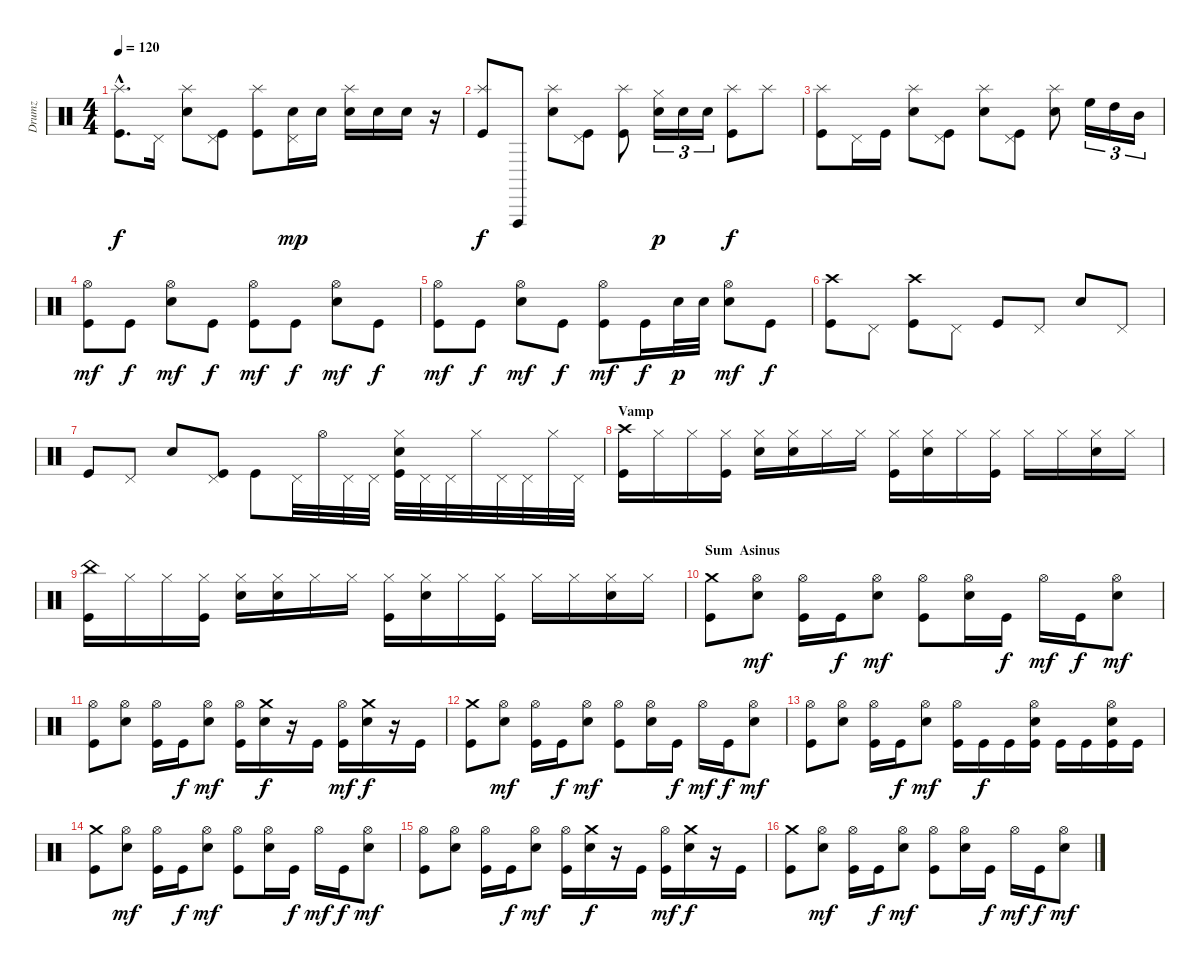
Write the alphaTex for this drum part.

\track ("Drumz" "Drumz") {instrument percussion}
\staff {score}
\articulation defaults
\ts (4 4)
\tempo 120
\clef neutral
\ks c
("Splash (hit)"{hac} "Kick (hit)"{hac}).8{d dy f} "Pedal Hi-Hat (hit)".16 ("Splash (hit)" "Electric Snare (hit)").8 ("Pedal Hi-Hat (hit)" "Kick (hit)").8 ("Splash (hit)" "Kick (hit)").8 ("Pedal Hi-Hat (hit)" "Electric Snare (hit)").16{dy mp} "Electric Snare (hit)".16 ("Splash (hit)" "Electric Snare (hit)").16 "Electric Snare (hit)".16 "Electric Snare (hit)".16 r.16 |
("Splash (hit)" "Kick (hit)").8{dy f} "Vibraslap (hit)".8 ("Splash (hit)" "Electric Snare (hit)").8 ("Pedal Hi-Hat (hit)" "Kick (hit)").8 ("Splash (hit)" "Kick (hit)").8 ("Hi-Hat (closed)" "Electric Snare (hit)").16{tu (3 2) dy p} "Electric Snare (hit)".16{tu (3 2)} "Electric Snare (hit)".16{tu (3 2)} ("Splash (hit)" "Kick (hit)").8{dy f} "Splash (hit)".8 |
("Splash (hit)" "Kick (hit)").8 "Pedal Hi-Hat (hit)".16 "Kick (hit)".16 ("Splash (hit)" "Electric Snare (hit)").8 ("Pedal Hi-Hat (hit)" "Kick (hit)").8 ("Splash (hit)" "Electric Snare (hit)").8 ("Pedal Hi-Hat (hit)" "Kick (hit)").8 ("Splash (hit)" "Electric Snare (hit)").8 "High Floor Tom (hit)".16{tu (3 2)} "High Tom (hit)".16{tu (3 2)} "Mid Tom (hit)".16{tu (3 2)} |
("Hi-Hat (open)" "Kick (hit)").8{dy mf} "Kick (hit)".8{dy f} ("Hi-Hat (open)" "Electric Snare (hit)").8{dy mf} "Kick (hit)".8{dy f} ("Hi-Hat (open)" "Kick (hit)").8{dy mf} "Kick (hit)".8{dy f} ("Hi-Hat (open)" "Electric Snare (hit)").8{dy mf} "Kick (hit)".8{dy f} |
("Hi-Hat (open)" "Kick (hit)").8{dy mf} "Kick (hit)".8{dy f} ("Hi-Hat (open)" "Electric Snare (hit)").8{dy mf} "Kick (hit)".8{dy f} ("Hi-Hat (open)" "Kick (hit)").8{dy mf} "Kick (hit)".16{dy f} "Electric Snare (hit)".32{dy p} "Electric Snare (hit)".32 ("Hi-Hat (open)" "Electric Snare (hit)").8{dy mf} "Kick (hit)".8{dy f} |
("Crash high (hit)" "Kick (hit)").8 "Pedal Hi-Hat (hit)".8 ("Crash high (hit)" "Kick (hit)").8 "Pedal Hi-Hat (hit)".8 "Kick (hit)".8 "Pedal Hi-Hat (hit)".8 "Electric Snare (hit)".8 "Pedal Hi-Hat (hit)".8 |
"Kick (hit)".8 "Pedal Hi-Hat (hit)".8 "Electric Snare (hit)".8 ("Pedal Hi-Hat (hit)" "Kick (hit)").8 "Kick (hit)".8 "Pedal Hi-Hat (hit)".32 "Hi-Hat (open)".32 "Pedal Hi-Hat (hit)".32 "Pedal Hi-Hat (hit)".32 ("Hi-Hat (closed)" "Electric Snare (hit)" "Kick (hit)").32 "Pedal Hi-Hat (hit)".32 "Pedal Hi-Hat (hit)".32 "Hi-Hat (closed)".32 "Pedal Hi-Hat (hit)".32 "Pedal Hi-Hat (hit)".32 "Hi-Hat (closed)".32 "Pedal Hi-Hat (hit)".32 |
\section ("" "Vamp")
("Crash high (hit)" "Kick (hit)").16 "Hi-Hat (closed)".16 "Hi-Hat (closed)".16 ("Hi-Hat (closed)" "Kick (hit)").16 ("Hi-Hat (closed)" "Electric Snare (hit)").16 ("Hi-Hat (closed)" "Electric Snare (hit)").16 "Hi-Hat (closed)".16 "Hi-Hat (closed)".16 ("Hi-Hat (closed)" "Kick (hit)").16 ("Hi-Hat (closed)" "Electric Snare (hit)").16 "Hi-Hat (closed)".16 ("Hi-Hat (closed)" "Kick (hit)").16 "Hi-Hat (closed)".16 "Hi-Hat (closed)".16 ("Hi-Hat (closed)" "Electric Snare (hit)").16 "Hi-Hat (closed)".16 |
("China (hit)" "Kick (hit)").16 "Hi-Hat (closed)".16 "Hi-Hat (closed)".16 ("Hi-Hat (closed)" "Kick (hit)").16 ("Hi-Hat (closed)" "Electric Snare (hit)").16 ("Hi-Hat (closed)" "Electric Snare (hit)").16 "Hi-Hat (closed)".16 "Hi-Hat (closed)".16 ("Hi-Hat (closed)" "Kick (hit)").16 ("Hi-Hat (closed)" "Electric Snare (hit)").16 "Hi-Hat (closed)".16 ("Hi-Hat (closed)" "Kick (hit)").16 "Hi-Hat (closed)".16 "Hi-Hat (closed)".16 ("Hi-Hat (closed)" "Electric Snare (hit)").16 "Hi-Hat (closed)".16 |
\section ("" "Sum  Asinus")
("Crash medium (hit)" "Kick (hit)").8 ("Hi-Hat (open)" "Electric Snare (hit)").8{dy mf} ("Hi-Hat (open)" "Kick (hit)").16 "Kick (hit)".16{dy f} ("Hi-Hat (open)" "Electric Snare (hit)").8{dy mf} ("Hi-Hat (open)" "Kick (hit)").8 ("Hi-Hat (open)" "Electric Snare (hit)").16 "Kick (hit)".16{dy f} "Hi-Hat (open)".16{dy mf} "Kick (hit)".16{dy f} ("Hi-Hat (open)" "Electric Snare (hit)").8{dy mf} |
("Hi-Hat (open)" "Kick (hit)").8 ("Hi-Hat (open)" "Electric Snare (hit)").8 ("Hi-Hat (open)" "Kick (hit)").16 "Kick (hit)".16{dy f} ("Hi-Hat (open)" "Electric Snare (hit)").8{dy mf} ("Hi-Hat (open)" "Kick (hit)").16 ("Crash medium (hit)" "Electric Snare (hit)").16{dy f} r.16 "Kick (hit)".16 ("Hi-Hat (open)" "Kick (hit)").16{dy mf} ("Crash medium (hit)" "Electric Snare (hit)").16{dy f} r.16 "Kick (hit)".16 |
("Crash medium (hit)" "Kick (hit)").8 ("Hi-Hat (open)" "Electric Snare (hit)").8{dy mf} ("Hi-Hat (open)" "Kick (hit)").16 "Kick (hit)".16{dy f} ("Hi-Hat (open)" "Electric Snare (hit)").8{dy mf} ("Hi-Hat (open)" "Kick (hit)").8 ("Hi-Hat (open)" "Electric Snare (hit)").16 "Kick (hit)".16{dy f} "Hi-Hat (open)".16{dy mf} "Kick (hit)".16{dy f} ("Hi-Hat (open)" "Electric Snare (hit)").8{dy mf} |
("Hi-Hat (open)" "Kick (hit)").8 ("Hi-Hat (open)" "Electric Snare (hit)").8 ("Hi-Hat (open)" "Kick (hit)").16 "Kick (hit)".16{dy f} ("Hi-Hat (open)" "Electric Snare (hit)").8{dy mf} ("Hi-Hat (open)" "Kick (hit)").16 "Kick (hit)".16{dy f} "Kick (hit)".16 ("Hi-Hat (open)" "Electric Snare (hit)" "Kick (hit)").16 "Kick (hit)".16 "Kick (hit)".16 ("Hi-Hat (open)" "Electric Snare (hit)" "Kick (hit)").16 "Kick (hit)".16 |
("Crash medium (hit)" "Kick (hit)").8 ("Hi-Hat (open)" "Electric Snare (hit)").8{dy mf} ("Hi-Hat (open)" "Kick (hit)").16 "Kick (hit)".16{dy f} ("Hi-Hat (open)" "Electric Snare (hit)").8{dy mf} ("Hi-Hat (open)" "Kick (hit)").8 ("Hi-Hat (open)" "Electric Snare (hit)").16 "Kick (hit)".16{dy f} "Hi-Hat (open)".16{dy mf} "Kick (hit)".16{dy f} ("Hi-Hat (open)" "Electric Snare (hit)").8{dy mf} |
("Hi-Hat (open)" "Kick (hit)").8 ("Hi-Hat (open)" "Electric Snare (hit)").8 ("Hi-Hat (open)" "Kick (hit)").16 "Kick (hit)".16{dy f} ("Hi-Hat (open)" "Electric Snare (hit)").8{dy mf} ("Hi-Hat (open)" "Kick (hit)").16 ("Crash medium (hit)" "Electric Snare (hit)").16{dy f} r.16 "Kick (hit)".16 ("Hi-Hat (open)" "Kick (hit)").16{dy mf} ("Crash medium (hit)" "Electric Snare (hit)").16{dy f} r.16 "Kick (hit)".16 |
("Crash medium (hit)" "Kick (hit)").8 ("Hi-Hat (open)" "Electric Snare (hit)").8{dy mf} ("Hi-Hat (open)" "Kick (hit)").16 "Kick (hit)".16{dy f} ("Hi-Hat (open)" "Electric Snare (hit)").8{dy mf} ("Hi-Hat (open)" "Kick (hit)").8 ("Hi-Hat (open)" "Electric Snare (hit)").16 "Kick (hit)".16{dy f} "Hi-Hat (open)".16{dy mf} "Kick (hit)".16{dy f} ("Hi-Hat (open)" "Electric Snare (hit)").8{dy mf}
